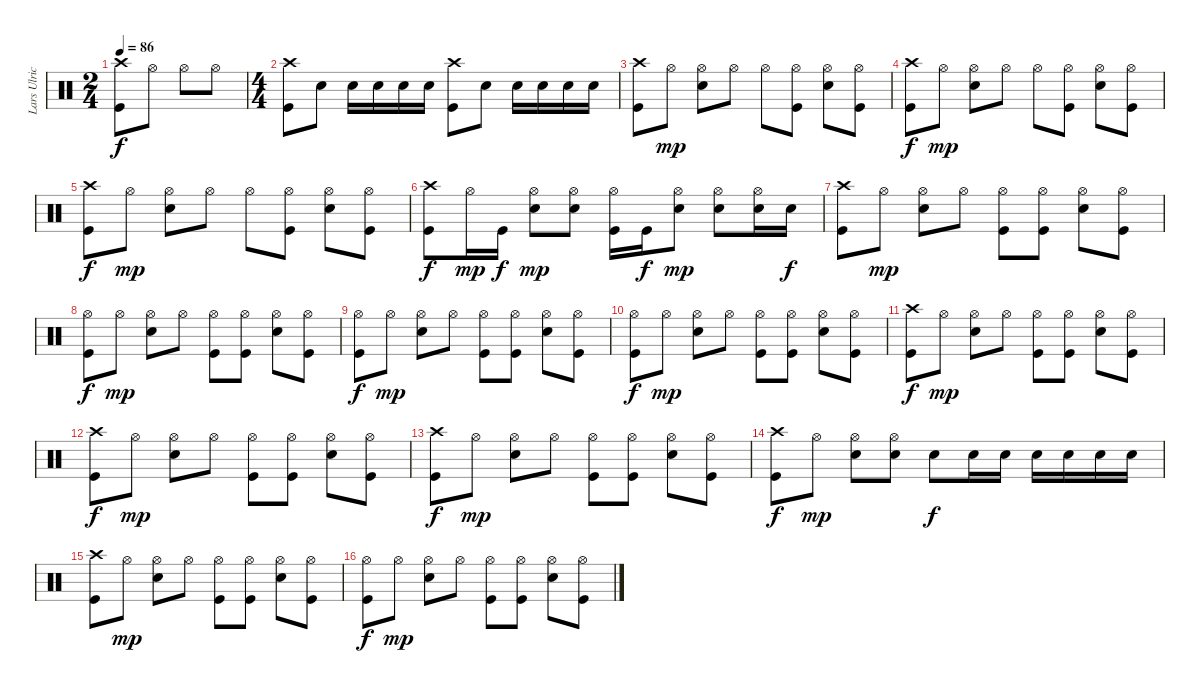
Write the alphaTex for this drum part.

\track ("Lars Ulrich" "Lars Ulric") {instrument percussion}
\staff {score}
\articulation defaults
\ts (2 4)
\tempo 86
\clef neutral
\ks c
("Crash high (hit)" "Kick (hit)").8{dy f} "Hi-Hat (open)".8 "Hi-Hat (open)".8 "Hi-Hat (open)".8 |
\ts (4 4)
("Crash high (hit)" "Kick (hit)").8 "Snare (hit) 2".8 "Snare (hit) 2".16 "Snare (hit) 2".16 "Snare (hit) 2".16 "Snare (hit) 2".16 ("Crash high (hit)" "Kick (hit)").8 "Snare (hit) 2".8 "Snare (hit) 2".16 "Snare (hit) 2".16 "Snare (hit) 2".16 "Snare (hit) 2".16 |
("Crash high (hit)" "Kick (hit)").8 "Hi-Hat (open)".8{dy mp} ("Hi-Hat (open)" "Snare (hit) 2").8 "Hi-Hat (open)".8 "Hi-Hat (open)".8 ("Hi-Hat (open)" "Kick (hit)").8 ("Hi-Hat (open)" "Snare (hit) 2").8 ("Hi-Hat (open)" "Kick (hit)").8 |
("Crash high (hit)" "Kick (hit)").8{dy f} "Hi-Hat (open)".8{dy mp} ("Hi-Hat (open)" "Snare (hit) 2").8 "Hi-Hat (open)".8 "Hi-Hat (open)".8 ("Hi-Hat (open)" "Kick (hit)").8 ("Hi-Hat (open)" "Snare (hit) 2").8 ("Hi-Hat (open)" "Kick (hit)").8 |
("Crash high (hit)" "Kick (hit)").8{dy f} "Hi-Hat (open)".8{dy mp} ("Hi-Hat (open)" "Snare (hit) 2").8 "Hi-Hat (open)".8 "Hi-Hat (open)".8 ("Hi-Hat (open)" "Kick (hit)").8 ("Hi-Hat (open)" "Snare (hit) 2").8 ("Hi-Hat (open)" "Kick (hit)").8 |
("Crash high (hit)" "Kick (hit)").8{dy f} "Hi-Hat (open)".16{dy mp} "Kick (hit)".16{dy f} ("Hi-Hat (open)" "Snare (hit) 2").8{dy mp} ("Hi-Hat (open)" "Snare (hit) 2").8 ("Hi-Hat (open)" "Kick (hit)").16 "Kick (hit)".16{dy f} ("Hi-Hat (open)" "Snare (hit) 2").8{dy mp} ("Hi-Hat (open)" "Snare (hit) 2").8 ("Hi-Hat (open)" "Snare (hit) 2").16 "Snare (hit) 2".16{dy f} |
("Crash high (hit)" "Kick (hit)").8 "Hi-Hat (open)".8{dy mp} ("Hi-Hat (open)" "Snare (hit) 2").8 "Hi-Hat (open)".8 ("Hi-Hat (open)" "Kick (hit)").8 ("Hi-Hat (open)" "Kick (hit)").8 ("Hi-Hat (open)" "Snare (hit) 2").8 ("Hi-Hat (open)" "Kick (hit)").8 |
("Hi-Hat (open)" "Kick (hit)").8{dy f} "Hi-Hat (open)".8{dy mp} ("Hi-Hat (open)" "Snare (hit) 2").8 "Hi-Hat (open)".8 ("Hi-Hat (open)" "Kick (hit)").8 ("Hi-Hat (open)" "Kick (hit)").8 ("Hi-Hat (open)" "Snare (hit) 2").8 ("Hi-Hat (open)" "Kick (hit)").8 |
("Hi-Hat (open)" "Kick (hit)").8{dy f} "Hi-Hat (open)".8{dy mp} ("Hi-Hat (open)" "Snare (hit) 2").8 "Hi-Hat (open)".8 ("Hi-Hat (open)" "Kick (hit)").8 ("Hi-Hat (open)" "Kick (hit)").8 ("Hi-Hat (open)" "Snare (hit) 2").8 ("Hi-Hat (open)" "Kick (hit)").8 |
("Hi-Hat (open)" "Kick (hit)").8{dy f} "Hi-Hat (open)".8{dy mp} ("Hi-Hat (open)" "Snare (hit) 2").8 "Hi-Hat (open)".8 ("Hi-Hat (open)" "Kick (hit)").8 ("Hi-Hat (open)" "Kick (hit)").8 ("Hi-Hat (open)" "Snare (hit) 2").8 ("Hi-Hat (open)" "Kick (hit)").8 |
("Crash high (hit)" "Kick (hit)").8{dy f} "Hi-Hat (open)".8{dy mp} ("Hi-Hat (open)" "Snare (hit) 2").8 "Hi-Hat (open)".8 ("Hi-Hat (open)" "Kick (hit)").8 ("Hi-Hat (open)" "Kick (hit)").8 ("Hi-Hat (open)" "Snare (hit) 2").8 ("Hi-Hat (open)" "Kick (hit)").8 |
("Crash high (hit)" "Kick (hit)").8{dy f} "Hi-Hat (open)".8{dy mp} ("Hi-Hat (open)" "Snare (hit) 2").8 "Hi-Hat (open)".8 ("Hi-Hat (open)" "Kick (hit)").8 ("Hi-Hat (open)" "Kick (hit)").8 ("Hi-Hat (open)" "Snare (hit) 2").8 ("Hi-Hat (open)" "Kick (hit)").8 |
("Crash high (hit)" "Kick (hit)").8{dy f} "Hi-Hat (open)".8{dy mp} ("Hi-Hat (open)" "Snare (hit) 2").8 "Hi-Hat (open)".8 ("Hi-Hat (open)" "Kick (hit)").8 ("Hi-Hat (open)" "Kick (hit)").8 ("Hi-Hat (open)" "Snare (hit) 2").8 ("Hi-Hat (open)" "Kick (hit)").8 |
("Crash high (hit)" "Kick (hit)").8{dy f} "Hi-Hat (open)".8{dy mp} ("Hi-Hat (open)" "Snare (hit) 2").8 ("Hi-Hat (open)" "Snare (hit) 2").8 "Snare (hit) 2".8{dy f} "Snare (hit) 2".16 "Snare (hit) 2".16 "Snare (hit) 2".16 "Snare (hit) 2".16 "Snare (hit) 2".16 "Snare (hit) 2".16 |
("Crash high (hit)" "Kick (hit)").8 "Hi-Hat (open)".8{dy mp} ("Hi-Hat (open)" "Snare (hit) 2").8 "Hi-Hat (open)".8 ("Hi-Hat (open)" "Kick (hit)").8 ("Hi-Hat (open)" "Kick (hit)").8 ("Hi-Hat (open)" "Snare (hit) 2").8 ("Hi-Hat (open)" "Kick (hit)").8 |
("Hi-Hat (open)" "Kick (hit)").8{dy f} "Hi-Hat (open)".8{dy mp} ("Hi-Hat (open)" "Snare (hit) 2").8 "Hi-Hat (open)".8 ("Hi-Hat (open)" "Kick (hit)").8 ("Hi-Hat (open)" "Kick (hit)").8 ("Hi-Hat (open)" "Snare (hit) 2").8 ("Hi-Hat (open)" "Kick (hit)").8
